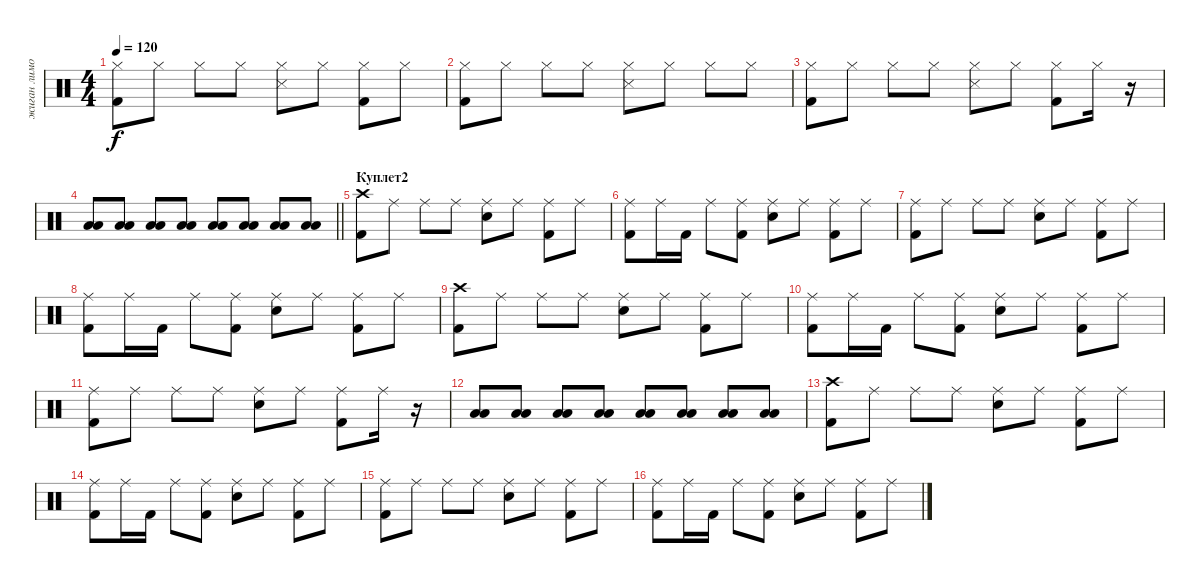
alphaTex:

\track ("жиган лимон" "жиган лимо") {instrument percussion}
\staff {score}
\articulation defaults
\ts (4 4)
\tempo 120
\clef neutral
\ks c
("Hi-Hat (closed)" "Kick (hit) 2").8{dy f} "Hi-Hat (closed)".8 "Hi-Hat (closed)".8 "Hi-Hat (closed)".8 ("Hi-Hat (closed)" "Snare (side stick) 3").8 "Hi-Hat (closed)".8 ("Hi-Hat (closed)" "Kick (hit) 2").8 "Hi-Hat (closed)".8 |
("Hi-Hat (closed)" "Kick (hit) 2").8 "Hi-Hat (closed)".8 "Hi-Hat (closed)".8 "Hi-Hat (closed)".8 ("Hi-Hat (closed)" "Snare (side stick) 3").8 "Hi-Hat (closed)".8 "Hi-Hat (closed)".8 "Hi-Hat (closed)".8 |
("Hi-Hat (closed)" "Kick (hit) 2").8 "Hi-Hat (closed)".8 "Hi-Hat (closed)".8 "Hi-Hat (closed)".8 ("Hi-Hat (closed)" "Snare (side stick) 3").8 "Hi-Hat (closed)".8 ("Hi-Hat (closed)" "Kick (hit) 2").8 "Hi-Hat (closed)".16 r.16{volume 6} |
\barLineRight lightlight
("Low Tom (hit)" "Low Floor Tom (hit)").8{volume 13} ("Low Tom (hit)" "Low Floor Tom (hit)").8 ("Low Tom (hit)" "Low Floor Tom (hit)").8 ("Low Tom (hit)" "Low Floor Tom (hit)").8 ("Low Tom (hit)" "Low Floor Tom (hit)").8 ("Low Tom (hit)" "Low Floor Tom (hit)").8 ("Low Tom (hit)" "Low Floor Tom (hit)").8 ("Low Tom (hit)" "Low Floor Tom (hit)").8 |
\section ("" "Куплет2")
("Crash high (hit)" "Kick (hit) 2").8 "Ride (middle)".8 "Ride (middle)".8 "Ride (middle)".8 ("Ride (middle)" "Snare (hit) 2").8 "Ride (middle)".8 ("Ride (middle)" "Kick (hit) 2").8 "Ride (middle)".8 |
("Ride (middle)" "Kick (hit) 2").8 "Ride (middle)".16 "Kick (hit) 2".16 "Ride (middle)".8 ("Ride (middle)" "Kick (hit) 2").8 ("Ride (middle)" "Snare (hit) 2").8 "Ride (middle)".8 ("Ride (middle)" "Kick (hit) 2").8 "Ride (middle)".8 |
("Ride (middle)" "Kick (hit) 2").8 "Ride (middle)".8 "Ride (middle)".8 "Ride (middle)".8 ("Ride (middle)" "Snare (hit) 2").8 "Ride (middle)".8 ("Ride (middle)" "Kick (hit) 2").8 "Ride (middle)".8 |
("Ride (middle)" "Kick (hit) 2").8 "Ride (middle)".16 "Kick (hit) 2".16 "Ride (middle)".8 ("Ride (middle)" "Kick (hit) 2").8 ("Ride (middle)" "Snare (hit) 2").8 "Ride (middle)".8 ("Ride (middle)" "Kick (hit) 2").8 "Ride (middle)".8 |
("Crash high (hit)" "Kick (hit) 2").8 "Ride (middle)".8 "Ride (middle)".8 "Ride (middle)".8 ("Ride (middle)" "Snare (hit) 2").8 "Ride (middle)".8 ("Ride (middle)" "Kick (hit) 2").8 "Ride (middle)".8 |
("Ride (middle)" "Kick (hit) 2").8 "Ride (middle)".16 "Kick (hit) 2".16 "Ride (middle)".8 ("Ride (middle)" "Kick (hit) 2").8 ("Ride (middle)" "Snare (hit) 2").8 "Ride (middle)".8 ("Ride (middle)" "Kick (hit) 2").8 "Ride (middle)".8 |
("Ride (middle)" "Kick (hit) 2").8 "Ride (middle)".8 "Ride (middle)".8 "Ride (middle)".8 ("Ride (middle)" "Snare (hit) 2").8 "Ride (middle)".8 ("Ride (middle)" "Kick (hit) 2").8 "Ride (middle)".16 r.16{volume 4} |
("Low Tom (hit)" "Low Floor Tom (hit)").8{volume 13} ("Low Tom (hit)" "Low Floor Tom (hit)").8 ("Low Tom (hit)" "Low Floor Tom (hit)").8 ("Low Tom (hit)" "Low Floor Tom (hit)").8 ("Low Tom (hit)" "Low Floor Tom (hit)").8 ("Low Tom (hit)" "Low Floor Tom (hit)").8 ("Low Tom (hit)" "Low Floor Tom (hit)").8 ("Low Tom (hit)" "Low Floor Tom (hit)").8 |
("Crash high (hit)" "Kick (hit) 2").8 "Ride (middle)".8 "Ride (middle)".8 "Ride (middle)".8 ("Ride (middle)" "Snare (hit) 2").8 "Ride (middle)".8 ("Ride (middle)" "Kick (hit) 2").8 "Ride (middle)".8 |
("Ride (middle)" "Kick (hit) 2").8 "Ride (middle)".16 "Kick (hit) 2".16 "Ride (middle)".8 ("Ride (middle)" "Kick (hit) 2").8 ("Ride (middle)" "Snare (hit) 2").8 "Ride (middle)".8 ("Ride (middle)" "Kick (hit) 2").8 "Ride (middle)".8 |
("Ride (middle)" "Kick (hit) 2").8 "Ride (middle)".8 "Ride (middle)".8 "Ride (middle)".8 ("Ride (middle)" "Snare (hit) 2").8 "Ride (middle)".8 ("Ride (middle)" "Kick (hit) 2").8 "Ride (middle)".8 |
("Ride (middle)" "Kick (hit) 2").8 "Ride (middle)".16 "Kick (hit) 2".16 "Ride (middle)".8 ("Ride (middle)" "Kick (hit) 2").8 ("Ride (middle)" "Snare (hit) 2").8 "Ride (middle)".8 ("Ride (middle)" "Kick (hit) 2").8 "Ride (middle)".8
